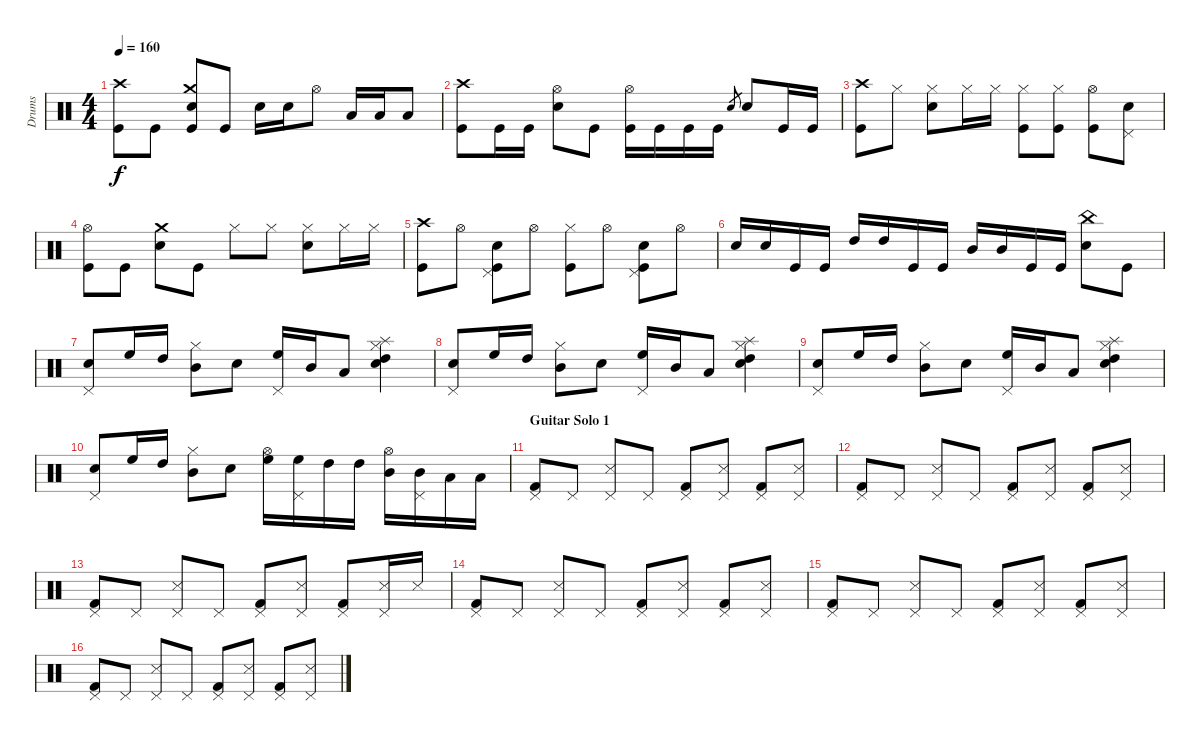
\track ("Drums" "Drums") {instrument percussion}
\staff {score}
\articulation defaults
\ts (4 4)
\tempo 160
\clef neutral
\ks c
("Crash high (hit)" "Kick (hit)").8{dy f} "Kick (hit)".8 ("Crash medium (hit)" "Electric Snare (hit)" "Kick (hit)").8 "Kick (hit)".8 "Electric Snare (hit)".16 "Electric Snare (hit)".16 "Hi-Hat (open)".8 "Low Tom (hit)".16 "Low Tom (hit)".16 "Low Tom (hit)".8 |
("Crash high (hit)" "Kick (hit)").8 "Kick (hit)".16 "Kick (hit)".16 ("Hi-Hat (open)" "Electric Snare (hit)").8 "Kick (hit)".8 ("Hi-Hat (open)" "Kick (hit)").16 "Kick (hit)".16 "Kick (hit)".16 "Kick (hit)".16 "Electric Snare (hit)".8{gr} "Electric Snare (hit)".8 "Kick (hit)".16 "Kick (hit)".16 |
("Crash high (hit)" "Kick (hit)").8 "Hi-Hat (closed)".8 ("Hi-Hat (closed)" "Electric Snare (hit)").8 "Hi-Hat (closed)".16 "Hi-Hat (closed)".16 ("Hi-Hat (closed)" "Kick (hit)").8 ("Hi-Hat (closed)" "Kick (hit)").8 ("Hi-Hat (open)" "Kick (hit)").8 ("Electric Snare (hit)" "Pedal Hi-Hat (hit)").8 |
("Hi-Hat (open)" "Kick (hit)").8 "Kick (hit)".8 ("Crash medium (hit)" "Electric Snare (hit)").8 "Kick (hit)".8 "Hi-Hat (closed)".8 "Hi-Hat (closed)".8 ("Hi-Hat (closed)" "Electric Snare (hit)").8 "Hi-Hat (closed)".16 "Hi-Hat (closed)".16 |
("Crash high (hit)" "Kick (hit)").8 "Hi-Hat (open)".8 ("Electric Snare (hit)" "Kick (hit)" "Pedal Hi-Hat (hit)").8 "Hi-Hat (open)".8 ("Hi-Hat (closed)" "Kick (hit)").8 "Hi-Hat (open)".8 ("Electric Snare (hit)" "Kick (hit)" "Pedal Hi-Hat (hit)").8 "Hi-Hat (open)".8 |
"Electric Snare (hit)".16 "Electric Snare (hit)".16 "Kick (hit)".16 "Kick (hit)".16 "High Tom (hit)".16 "High Tom (hit)".16 "Kick (hit)".16 "Kick (hit)".16 "Mid Tom (hit)".16 "Mid Tom (hit)".16 "Kick (hit)".16 "Kick (hit)".16 ("China (hit)" "Electric Snare (hit)").8 "Kick (hit)".8 |
("Pedal Hi-Hat (hit)" "Electric Snare (hit)").8 "High Floor Tom (hit)".16 "High Tom (hit)".16 ("Hi-Hat (closed)" "Mid Tom (hit)").8 "Electric Snare (hit)".8 ("Pedal Hi-Hat (hit)" "High Floor Tom (hit)").16 "Mid Tom (hit)".16 "Low Tom (hit)".8 ("Splash (hit)" "Hi-Hat (closed)" "Electric Snare (hit)" "High Tom (hit)").4 |
("Pedal Hi-Hat (hit)" "Electric Snare (hit)").8 "High Floor Tom (hit)".16 "High Tom (hit)".16 ("Hi-Hat (closed)" "Mid Tom (hit)").8 "Electric Snare (hit)".8 ("Pedal Hi-Hat (hit)" "High Floor Tom (hit)").16 "Mid Tom (hit)".16 "Low Tom (hit)".8 ("Splash (hit)" "Hi-Hat (closed)" "Electric Snare (hit)" "High Tom (hit)").4 |
("Pedal Hi-Hat (hit)" "Electric Snare (hit)").8 "High Floor Tom (hit)".16 "High Tom (hit)".16 ("Hi-Hat (closed)" "Mid Tom (hit)").8 "Electric Snare (hit)".8 ("Pedal Hi-Hat (hit)" "High Floor Tom (hit)").16 "Mid Tom (hit)".16 "Low Tom (hit)".8 ("Splash (hit)" "Hi-Hat (closed)" "Electric Snare (hit)" "High Tom (hit)").4 |
("Pedal Hi-Hat (hit)" "Electric Snare (hit)").8 "High Floor Tom (hit)".16 "High Tom (hit)".16 ("Hi-Hat (closed)" "Mid Tom (hit)").8 "Electric Snare (hit)".8 ("Hi-Hat (open)" "High Floor Tom (hit)").16 ("Pedal Hi-Hat (hit)" "High Floor Tom (hit)").16 "High Tom (hit)".16 "High Tom (hit)".16 ("Hi-Hat (open)" "Mid Tom (hit)").16 ("Pedal Hi-Hat (hit)" "Mid Tom (hit)").16 "Low Tom (hit)".16 "Low Tom (hit)".16 |
\section ("" "Guitar Solo 1")
("Pedal Hi-Hat (hit)" "Kick (hit) 2").8 "Pedal Hi-Hat (hit)".8 ("Pedal Hi-Hat (hit)" "Snare (side stick) 3").8 "Pedal Hi-Hat (hit)".8 ("Pedal Hi-Hat (hit)" "Kick (hit) 2").8 ("Pedal Hi-Hat (hit)" "Snare (side stick) 3").8 ("Pedal Hi-Hat (hit)" "Kick (hit) 2").8 ("Pedal Hi-Hat (hit)" "Snare (side stick) 3").8 |
("Pedal Hi-Hat (hit)" "Kick (hit) 2").8 "Pedal Hi-Hat (hit)".8 ("Pedal Hi-Hat (hit)" "Snare (side stick) 3").8 "Pedal Hi-Hat (hit)".8 ("Pedal Hi-Hat (hit)" "Kick (hit) 2").8 ("Pedal Hi-Hat (hit)" "Snare (side stick) 3").8 ("Pedal Hi-Hat (hit)" "Kick (hit) 2").8 ("Pedal Hi-Hat (hit)" "Snare (side stick) 3").8 |
("Pedal Hi-Hat (hit)" "Kick (hit) 2").8 "Pedal Hi-Hat (hit)".8 ("Pedal Hi-Hat (hit)" "Snare (side stick) 3").8 "Pedal Hi-Hat (hit)".8 ("Pedal Hi-Hat (hit)" "Kick (hit) 2").8 ("Pedal Hi-Hat (hit)" "Snare (side stick) 3").8 ("Pedal Hi-Hat (hit)" "Kick (hit) 2").8 ("Pedal Hi-Hat (hit)" "Snare (side stick) 3").16 "Snare (side stick) 3".16 |
("Pedal Hi-Hat (hit)" "Kick (hit) 2").8 "Pedal Hi-Hat (hit)".8 ("Pedal Hi-Hat (hit)" "Snare (side stick) 3").8 "Pedal Hi-Hat (hit)".8 ("Pedal Hi-Hat (hit)" "Kick (hit) 2").8 ("Pedal Hi-Hat (hit)" "Snare (side stick) 3").8 ("Pedal Hi-Hat (hit)" "Kick (hit) 2").8 ("Pedal Hi-Hat (hit)" "Snare (side stick) 3").8 |
("Pedal Hi-Hat (hit)" "Kick (hit) 2").8 "Pedal Hi-Hat (hit)".8 ("Pedal Hi-Hat (hit)" "Snare (side stick) 3").8 "Pedal Hi-Hat (hit)".8 ("Pedal Hi-Hat (hit)" "Kick (hit) 2").8 ("Pedal Hi-Hat (hit)" "Snare (side stick) 3").8 ("Pedal Hi-Hat (hit)" "Kick (hit) 2").8 ("Pedal Hi-Hat (hit)" "Snare (side stick) 3").8 |
("Pedal Hi-Hat (hit)" "Kick (hit) 2").8 "Pedal Hi-Hat (hit)".8 ("Pedal Hi-Hat (hit)" "Snare (side stick) 3").8 "Pedal Hi-Hat (hit)".8 ("Pedal Hi-Hat (hit)" "Kick (hit) 2").8 ("Pedal Hi-Hat (hit)" "Snare (side stick) 3").8 ("Pedal Hi-Hat (hit)" "Kick (hit) 2").8 ("Pedal Hi-Hat (hit)" "Snare (side stick) 3").8
